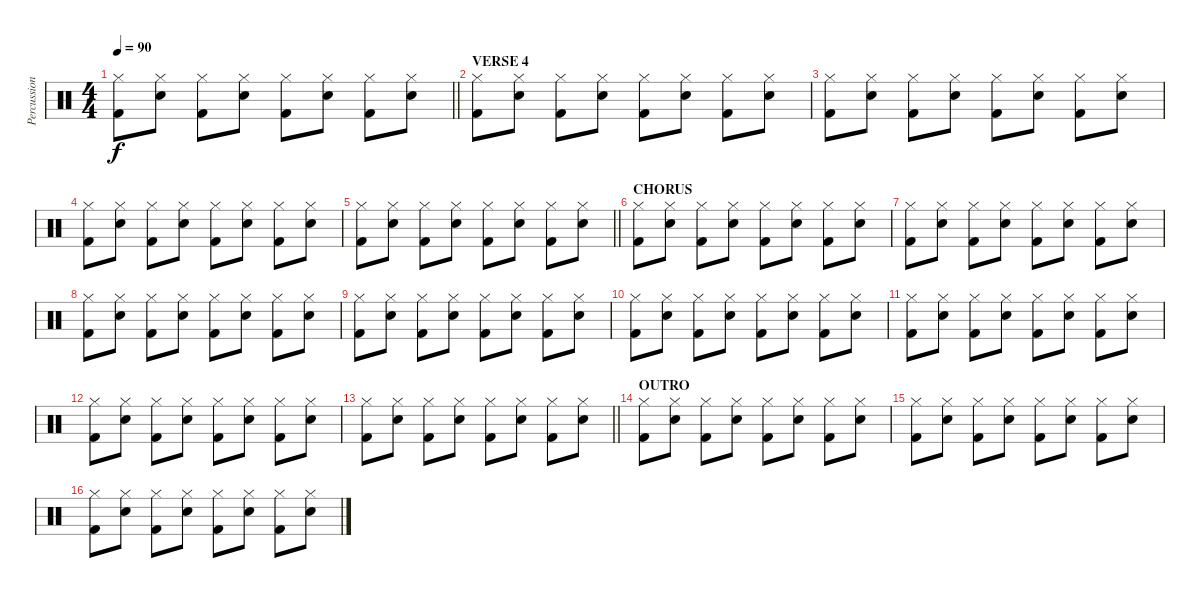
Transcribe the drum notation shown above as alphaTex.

\track ("Percussions" "Percussion") {instrument percussion}
\staff {score}
\articulation defaults
\ts (4 4)
\tempo 90
\clef neutral
\barLineRight lightlight
\ks c
("Hi-Hat (closed)" "Kick (hit) 2").8{dy f} ("Hi-Hat (closed)" "Electric Snare (hit)").8 ("Hi-Hat (closed)" "Kick (hit) 2").8 ("Hi-Hat (closed)" "Electric Snare (hit)").8 ("Hi-Hat (closed)" "Kick (hit) 2").8 ("Hi-Hat (closed)" "Electric Snare (hit)").8 ("Hi-Hat (closed)" "Kick (hit) 2").8 ("Hi-Hat (closed)" "Electric Snare (hit)").8 |
\section ("" "VERSE 4")
("Hi-Hat (closed)" "Kick (hit) 2").8 ("Hi-Hat (closed)" "Electric Snare (hit)").8 ("Hi-Hat (closed)" "Kick (hit) 2").8 ("Hi-Hat (closed)" "Electric Snare (hit)").8 ("Hi-Hat (closed)" "Kick (hit) 2").8 ("Hi-Hat (closed)" "Electric Snare (hit)").8 ("Hi-Hat (closed)" "Kick (hit) 2").8 ("Hi-Hat (closed)" "Electric Snare (hit)").8 |
("Hi-Hat (closed)" "Kick (hit) 2").8 ("Hi-Hat (closed)" "Electric Snare (hit)").8 ("Hi-Hat (closed)" "Kick (hit) 2").8 ("Hi-Hat (closed)" "Electric Snare (hit)").8 ("Hi-Hat (closed)" "Kick (hit) 2").8 ("Hi-Hat (closed)" "Electric Snare (hit)").8 ("Hi-Hat (closed)" "Kick (hit) 2").8 ("Hi-Hat (closed)" "Electric Snare (hit)").8 |
("Hi-Hat (closed)" "Kick (hit) 2").8 ("Hi-Hat (closed)" "Electric Snare (hit)").8 ("Hi-Hat (closed)" "Kick (hit) 2").8 ("Hi-Hat (closed)" "Electric Snare (hit)").8 ("Hi-Hat (closed)" "Kick (hit) 2").8 ("Hi-Hat (closed)" "Electric Snare (hit)").8 ("Hi-Hat (closed)" "Kick (hit) 2").8 ("Hi-Hat (closed)" "Electric Snare (hit)").8 |
\barLineRight lightlight
("Hi-Hat (closed)" "Kick (hit) 2").8 ("Hi-Hat (closed)" "Electric Snare (hit)").8 ("Hi-Hat (closed)" "Kick (hit) 2").8 ("Hi-Hat (closed)" "Electric Snare (hit)").8 ("Hi-Hat (closed)" "Kick (hit) 2").8 ("Hi-Hat (closed)" "Electric Snare (hit)").8 ("Hi-Hat (closed)" "Kick (hit) 2").8 ("Hi-Hat (closed)" "Electric Snare (hit)").8 |
\section ("" "CHORUS")
("Hi-Hat (closed)" "Kick (hit) 2").8 ("Hi-Hat (closed)" "Electric Snare (hit)").8 ("Hi-Hat (closed)" "Kick (hit) 2").8 ("Hi-Hat (closed)" "Electric Snare (hit)").8 ("Hi-Hat (closed)" "Kick (hit) 2").8 ("Hi-Hat (closed)" "Electric Snare (hit)").8 ("Hi-Hat (closed)" "Kick (hit) 2").8 ("Hi-Hat (closed)" "Electric Snare (hit)").8 |
("Hi-Hat (closed)" "Kick (hit) 2").8 ("Hi-Hat (closed)" "Electric Snare (hit)").8 ("Hi-Hat (closed)" "Kick (hit) 2").8 ("Hi-Hat (closed)" "Electric Snare (hit)").8 ("Hi-Hat (closed)" "Kick (hit) 2").8 ("Hi-Hat (closed)" "Electric Snare (hit)").8 ("Hi-Hat (closed)" "Kick (hit) 2").8 ("Hi-Hat (closed)" "Electric Snare (hit)").8 |
("Hi-Hat (closed)" "Kick (hit) 2").8 ("Hi-Hat (closed)" "Electric Snare (hit)").8 ("Hi-Hat (closed)" "Kick (hit) 2").8 ("Hi-Hat (closed)" "Electric Snare (hit)").8 ("Hi-Hat (closed)" "Kick (hit) 2").8 ("Hi-Hat (closed)" "Electric Snare (hit)").8 ("Hi-Hat (closed)" "Kick (hit) 2").8 ("Hi-Hat (closed)" "Electric Snare (hit)").8 |
("Hi-Hat (closed)" "Kick (hit) 2").8 ("Hi-Hat (closed)" "Electric Snare (hit)").8 ("Hi-Hat (closed)" "Kick (hit) 2").8 ("Hi-Hat (closed)" "Electric Snare (hit)").8 ("Hi-Hat (closed)" "Kick (hit) 2").8 ("Hi-Hat (closed)" "Electric Snare (hit)").8 ("Hi-Hat (closed)" "Kick (hit) 2").8 ("Hi-Hat (closed)" "Electric Snare (hit)").8 |
("Hi-Hat (closed)" "Kick (hit) 2").8 ("Hi-Hat (closed)" "Electric Snare (hit)").8 ("Hi-Hat (closed)" "Kick (hit) 2").8 ("Hi-Hat (closed)" "Electric Snare (hit)").8 ("Hi-Hat (closed)" "Kick (hit) 2").8 ("Hi-Hat (closed)" "Electric Snare (hit)").8 ("Hi-Hat (closed)" "Kick (hit) 2").8 ("Hi-Hat (closed)" "Electric Snare (hit)").8 |
("Hi-Hat (closed)" "Kick (hit) 2").8 ("Hi-Hat (closed)" "Electric Snare (hit)").8 ("Hi-Hat (closed)" "Kick (hit) 2").8 ("Hi-Hat (closed)" "Electric Snare (hit)").8 ("Hi-Hat (closed)" "Kick (hit) 2").8 ("Hi-Hat (closed)" "Electric Snare (hit)").8 ("Hi-Hat (closed)" "Kick (hit) 2").8 ("Hi-Hat (closed)" "Electric Snare (hit)").8 |
("Hi-Hat (closed)" "Kick (hit) 2").8 ("Hi-Hat (closed)" "Electric Snare (hit)").8 ("Hi-Hat (closed)" "Kick (hit) 2").8 ("Hi-Hat (closed)" "Electric Snare (hit)").8 ("Hi-Hat (closed)" "Kick (hit) 2").8 ("Hi-Hat (closed)" "Electric Snare (hit)").8 ("Hi-Hat (closed)" "Kick (hit) 2").8 ("Hi-Hat (closed)" "Electric Snare (hit)").8 |
\barLineRight lightlight
("Hi-Hat (closed)" "Kick (hit) 2").8 ("Hi-Hat (closed)" "Electric Snare (hit)").8 ("Hi-Hat (closed)" "Kick (hit) 2").8 ("Hi-Hat (closed)" "Electric Snare (hit)").8 ("Hi-Hat (closed)" "Kick (hit) 2").8 ("Hi-Hat (closed)" "Electric Snare (hit)").8 ("Hi-Hat (closed)" "Kick (hit) 2").8 ("Hi-Hat (closed)" "Electric Snare (hit)").8 |
\section ("" "OUTRO")
("Hi-Hat (closed)" "Kick (hit) 2").8 ("Hi-Hat (closed)" "Electric Snare (hit)").8 ("Hi-Hat (closed)" "Kick (hit) 2").8 ("Hi-Hat (closed)" "Electric Snare (hit)").8 ("Hi-Hat (closed)" "Kick (hit) 2").8 ("Hi-Hat (closed)" "Electric Snare (hit)").8 ("Hi-Hat (closed)" "Kick (hit) 2").8 ("Hi-Hat (closed)" "Electric Snare (hit)").8 |
("Hi-Hat (closed)" "Kick (hit) 2").8 ("Hi-Hat (closed)" "Electric Snare (hit)").8 ("Hi-Hat (closed)" "Kick (hit) 2").8 ("Hi-Hat (closed)" "Electric Snare (hit)").8 ("Hi-Hat (closed)" "Kick (hit) 2").8 ("Hi-Hat (closed)" "Electric Snare (hit)").8 ("Hi-Hat (closed)" "Kick (hit) 2").8 ("Hi-Hat (closed)" "Electric Snare (hit)").8 |
("Hi-Hat (closed)" "Kick (hit) 2").8 ("Hi-Hat (closed)" "Electric Snare (hit)").8 ("Hi-Hat (closed)" "Kick (hit) 2").8 ("Hi-Hat (closed)" "Electric Snare (hit)").8 ("Hi-Hat (closed)" "Kick (hit) 2").8 ("Hi-Hat (closed)" "Electric Snare (hit)").8 ("Hi-Hat (closed)" "Kick (hit) 2").8 ("Hi-Hat (closed)" "Electric Snare (hit)").8
